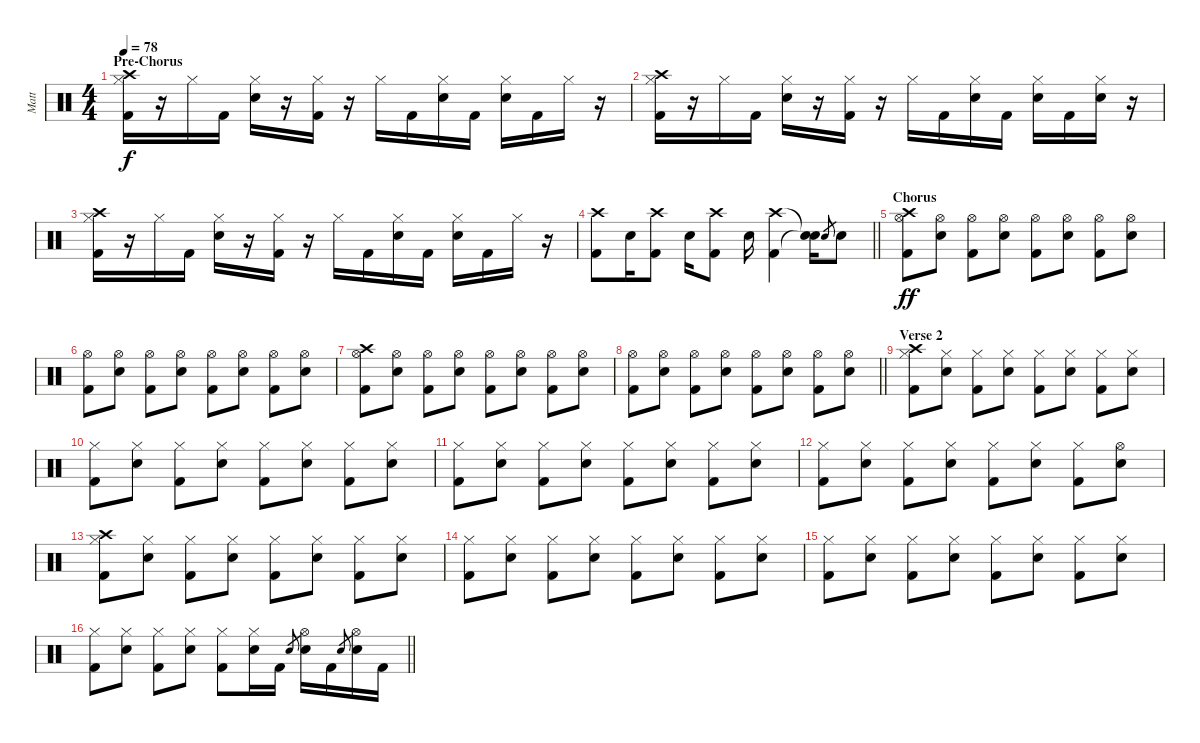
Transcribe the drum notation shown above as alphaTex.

\track ("Matt" "Matt") {instrument percussion}
\staff {score}
\articulation defaults
\ts (4 4)
\section ("" "Pre-Chorus")
\tempo 78
\clef neutral
\ks c
("Hi-Hat (closed)" "Kick (hit) 2" "Crash high (hit)").16{dy f} r.16 "Hi-Hat (closed)".16 "Kick (hit) 2".16 ("Hi-Hat (closed)" "Snare (hit) 2").16 r.16 ("Hi-Hat (closed)" "Kick (hit) 2").16 r.16 "Hi-Hat (closed)".16 "Kick (hit) 2".16 ("Hi-Hat (closed)" "Snare (hit) 2").16 "Kick (hit) 2".16 ("Hi-Hat (closed)" "Snare (hit) 2").16 "Kick (hit) 2".16 "Hi-Hat (closed)".16 r.16 |
("Hi-Hat (closed)" "Kick (hit) 2" "Crash high (hit)").16 r.16 "Hi-Hat (closed)".16 "Kick (hit) 2".16 ("Hi-Hat (closed)" "Snare (hit) 2").16 r.16 ("Hi-Hat (closed)" "Kick (hit) 2").16 r.16 "Hi-Hat (closed)".16 "Kick (hit) 2".16 ("Hi-Hat (closed)" "Snare (hit) 2").16 "Kick (hit) 2".16 ("Hi-Hat (closed)" "Snare (hit) 2").16 "Kick (hit) 2".16 ("Hi-Hat (closed)" "Snare (hit) 2").16 r.16 |
("Hi-Hat (closed)" "Kick (hit) 2" "Crash high (hit)").16 r.16 "Hi-Hat (closed)".16 "Kick (hit) 2".16 ("Hi-Hat (closed)" "Snare (hit) 2").16 r.16 ("Hi-Hat (closed)" "Kick (hit) 2").16 r.16 "Hi-Hat (closed)".16 "Kick (hit) 2".16 ("Hi-Hat (closed)" "Snare (hit) 2").16 "Kick (hit) 2".16 ("Hi-Hat (closed)" "Snare (hit) 2").16 "Kick (hit) 2".16 "Hi-Hat (closed)".16 r.16 |
\barLineRight lightlight
("Kick (hit) 2" "Crash high (hit)").8 "Snare (hit) 2".16 ("Kick (hit) 2" "Crash high (hit)").8 "Snare (hit) 2".16 ("Kick (hit) 2" "Crash high (hit)").8 "Snare (hit) 2".16 ("Kick (hit) 2" "Crash high (hit)").4 ("Snare (hit)"{t} "Snare (hit)"{t}).16 "Snare (hit) 2".8{gr} "Snare (hit) 2".8 |
\section ("" "Chorus")
("Hi-Hat (open)" "Kick (hit) 2" "Crash high (hit)").8{dy ff} ("Hi-Hat (open)" "Snare (hit) 2").8 ("Hi-Hat (open)" "Kick (hit) 2").8 ("Hi-Hat (open)" "Snare (hit) 2").8 ("Hi-Hat (open)" "Kick (hit) 2").8 ("Hi-Hat (open)" "Snare (hit) 2").8 ("Hi-Hat (open)" "Kick (hit) 2").8 ("Hi-Hat (open)" "Snare (hit) 2").8 |
("Hi-Hat (open)" "Kick (hit) 2").8 ("Hi-Hat (open)" "Snare (hit) 2").8 ("Hi-Hat (open)" "Kick (hit) 2").8 ("Hi-Hat (open)" "Snare (hit) 2").8 ("Hi-Hat (open)" "Kick (hit) 2").8 ("Hi-Hat (open)" "Snare (hit) 2").8 ("Hi-Hat (open)" "Kick (hit) 2").8 ("Hi-Hat (open)" "Snare (hit) 2").8 |
("Hi-Hat (open)" "Kick (hit) 2" "Crash high (hit)").8 ("Hi-Hat (open)" "Snare (hit) 2").8 ("Hi-Hat (open)" "Kick (hit) 2").8 ("Hi-Hat (open)" "Snare (hit) 2").8 ("Hi-Hat (open)" "Kick (hit) 2").8 ("Hi-Hat (open)" "Snare (hit) 2").8 ("Hi-Hat (open)" "Kick (hit) 2").8 ("Hi-Hat (open)" "Snare (hit) 2").8 |
\barLineRight lightlight
("Hi-Hat (open)" "Kick (hit) 2").8 ("Hi-Hat (open)" "Snare (hit) 2").8 ("Hi-Hat (open)" "Kick (hit) 2").8 ("Hi-Hat (open)" "Snare (hit) 2").8 ("Hi-Hat (open)" "Kick (hit) 2").8 ("Hi-Hat (open)" "Snare (hit) 2").8 ("Hi-Hat (open)" "Kick (hit) 2").8 ("Hi-Hat (open)" "Snare (hit) 2").8 |
\section ("" "Verse 2")
("Hi-Hat (closed)" "Kick (hit) 2" "Crash high (hit)").8 ("Hi-Hat (closed)" "Snare (hit) 2").8 ("Hi-Hat (closed)" "Kick (hit) 2").8 ("Hi-Hat (closed)" "Snare (hit) 2").8 ("Hi-Hat (closed)" "Kick (hit) 2").8 ("Hi-Hat (closed)" "Snare (hit) 2").8 ("Hi-Hat (closed)" "Kick (hit) 2").8 ("Hi-Hat (closed)" "Snare (hit) 2").8 |
("Hi-Hat (closed)" "Kick (hit) 2").8 ("Hi-Hat (closed)" "Snare (hit) 2").8 ("Hi-Hat (closed)" "Kick (hit) 2").8 ("Hi-Hat (closed)" "Snare (hit) 2").8 ("Hi-Hat (closed)" "Kick (hit) 2").8 ("Hi-Hat (closed)" "Snare (hit) 2").8 ("Hi-Hat (closed)" "Kick (hit) 2").8 ("Hi-Hat (closed)" "Snare (hit) 2").8 |
("Hi-Hat (closed)" "Kick (hit) 2").8 ("Hi-Hat (closed)" "Snare (hit) 2").8 ("Hi-Hat (closed)" "Kick (hit) 2").8 ("Hi-Hat (closed)" "Snare (hit) 2").8 ("Hi-Hat (closed)" "Kick (hit) 2").8 ("Hi-Hat (closed)" "Snare (hit) 2").8 ("Hi-Hat (closed)" "Kick (hit) 2").8 ("Hi-Hat (closed)" "Snare (hit) 2").8 |
("Hi-Hat (closed)" "Kick (hit) 2").8 ("Hi-Hat (closed)" "Snare (hit) 2").8 ("Hi-Hat (closed)" "Kick (hit) 2").8 ("Hi-Hat (closed)" "Snare (hit) 2").8 ("Hi-Hat (closed)" "Kick (hit) 2").8 ("Hi-Hat (closed)" "Snare (hit) 2").8 ("Hi-Hat (closed)" "Kick (hit) 2").8 ("Hi-Hat (open)" "Snare (hit) 2").8 |
("Hi-Hat (closed)" "Kick (hit) 2" "Crash high (hit)").8 ("Hi-Hat (closed)" "Snare (hit) 2").8 ("Hi-Hat (closed)" "Kick (hit) 2").8 ("Hi-Hat (closed)" "Snare (hit) 2").8 ("Hi-Hat (closed)" "Kick (hit) 2").8 ("Hi-Hat (closed)" "Snare (hit) 2").8 ("Hi-Hat (closed)" "Kick (hit) 2").8 ("Hi-Hat (closed)" "Snare (hit) 2").8 |
("Hi-Hat (closed)" "Kick (hit) 2").8 ("Hi-Hat (closed)" "Snare (hit) 2").8 ("Hi-Hat (closed)" "Kick (hit) 2").8 ("Hi-Hat (closed)" "Snare (hit) 2").8 ("Hi-Hat (closed)" "Kick (hit) 2").8 ("Hi-Hat (closed)" "Snare (hit) 2").8 ("Hi-Hat (closed)" "Kick (hit) 2").8 ("Hi-Hat (closed)" "Snare (hit) 2").8 |
("Hi-Hat (closed)" "Kick (hit) 2").8 ("Hi-Hat (closed)" "Snare (hit) 2").8 ("Hi-Hat (closed)" "Kick (hit) 2").8 ("Hi-Hat (closed)" "Snare (hit) 2").8 ("Hi-Hat (closed)" "Kick (hit) 2").8 ("Hi-Hat (closed)" "Snare (hit) 2").8 ("Hi-Hat (closed)" "Kick (hit) 2").8 ("Hi-Hat (closed)" "Snare (hit) 2").8 |
\barLineRight lightlight
("Hi-Hat (closed)" "Kick (hit) 2").8 ("Hi-Hat (closed)" "Snare (hit) 2").8 ("Hi-Hat (closed)" "Kick (hit) 2").8 ("Hi-Hat (closed)" "Snare (hit) 2").8 ("Hi-Hat (closed)" "Kick (hit) 2").8 ("Hi-Hat (closed)" "Snare (hit) 2").16 "Kick (hit) 2".16 "Snare (hit) 2".8{gr} ("Hi-Hat (open)" "Snare (hit) 2").16 "Kick (hit) 2".16 "Snare (hit) 2".8{gr} ("Hi-Hat (open)" "Snare (hit) 2").16 "Kick (hit) 2".16
